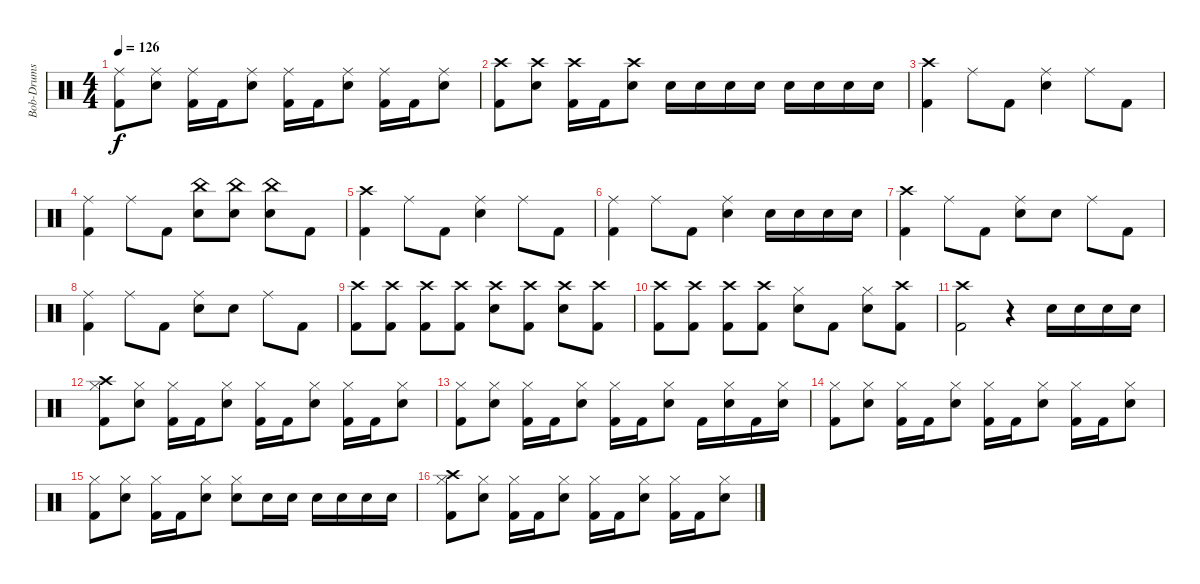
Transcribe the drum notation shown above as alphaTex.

\track ("Bob-Drums" "Bob-Drums") {instrument percussion}
\staff {score}
\articulation defaults
\ts (4 4)
\tempo 126
\clef neutral
\ks c
("Ride (middle)" "Kick (hit) 2").8{dy f} ("Ride (middle)" "Snare (hit) 2").8 ("Ride (middle)" "Kick (hit) 2").16 "Kick (hit) 2".16 ("Ride (middle)" "Snare (hit) 2").8 ("Ride (middle)" "Kick (hit) 2").16 "Kick (hit) 2".16 ("Ride (middle)" "Snare (hit) 2").8 ("Ride (middle)" "Kick (hit) 2").16 "Kick (hit) 2".16 ("Ride (middle)" "Snare (hit) 2").8 |
("Crash high (hit)" "Kick (hit) 2").8 ("Crash high (hit)" "Snare (hit) 2").8 ("Crash high (hit)" "Kick (hit) 2").16 "Kick (hit) 2".16 ("Crash high (hit)" "Snare (hit) 2").8 "Snare (hit) 2".16 "Snare (hit) 2".16 "Snare (hit) 2".16 "Snare (hit) 2".16 "Snare (hit) 2".16 "Snare (hit) 2".16 "Snare (hit) 2".16 "Snare (hit) 2".16 |
("Crash high (hit)" "Kick (hit) 2").4 "Ride (middle)".8 "Kick (hit) 2".8 ("Ride (middle)" "Snare (hit) 2").4 "Ride (middle)".8 "Kick (hit) 2".8 |
("Ride (middle)" "Kick (hit) 2").4 "Ride (middle)".8 "Kick (hit) 2".8 ("China (hit)" "Snare (hit) 2").8 ("China (hit)" "Snare (hit) 2").8 ("China (hit)" "Snare (hit) 2").8 "Kick (hit) 2".8 |
("Crash high (hit)" "Kick (hit) 2").4 "Ride (middle)".8 "Kick (hit) 2".8 ("Ride (middle)" "Snare (hit) 2").4 "Ride (middle)".8 "Kick (hit) 2".8 |
("Ride (middle)" "Kick (hit) 2").4 "Ride (middle)".8 "Kick (hit) 2".8 ("Ride (middle)" "Snare (hit) 2").4 "Snare (hit) 2".16 "Snare (hit) 2".16 "Snare (hit) 2".16 "Snare (hit) 2".16 |
("Crash high (hit)" "Kick (hit) 2").4 "Ride (middle)".8 "Kick (hit) 2".8 ("Ride (middle)" "Snare (hit) 2").8 "Snare (hit) 2".8 "Ride (middle)".8 "Kick (hit) 2".8 |
("Ride (middle)" "Kick (hit) 2").4 "Ride (middle)".8 "Kick (hit) 2".8 ("Ride (middle)" "Snare (hit) 2").8 "Snare (hit) 2".8 "Ride (middle)".8 "Kick (hit) 2".8 |
("Crash high (hit)" "Kick (hit) 2").8 ("Crash high (hit)" "Kick (hit) 2").8 ("Crash high (hit)" "Kick (hit) 2").8 ("Crash high (hit)" "Kick (hit) 2").8 ("Crash high (hit)" "Snare (hit) 2").8 ("Crash high (hit)" "Kick (hit) 2").8 ("Crash high (hit)" "Snare (hit) 2").8 ("Crash high (hit)" "Kick (hit) 2").8 |
("Crash high (hit)" "Kick (hit) 2").8 ("Crash high (hit)" "Kick (hit) 2").8 ("Crash high (hit)" "Kick (hit) 2").8 ("Crash high (hit)" "Kick (hit) 2").8 ("Hi-Hat (closed)" "Snare (hit) 2").8 "Kick (hit) 2".8 ("Hi-Hat (closed)" "Snare (hit) 2").8 ("Crash high (hit)" "Kick (hit) 2").8 |
("Crash high (hit)" "Kick (hit) 2").2 r.4 "Snare (hit) 2".16 "Snare (hit) 2".16 "Snare (hit) 2".16 "Snare (hit) 2".16 |
("Crash high (hit)" "Hi-Hat (closed)" "Kick (hit) 2").8 ("Hi-Hat (closed)" "Snare (hit) 2").8 ("Hi-Hat (closed)" "Kick (hit) 2").16 "Kick (hit) 2".16 ("Hi-Hat (closed)" "Snare (hit) 2").8 ("Hi-Hat (closed)" "Kick (hit) 2").16 "Kick (hit) 2".16 ("Hi-Hat (closed)" "Snare (hit) 2").8 ("Hi-Hat (closed)" "Kick (hit) 2").16 "Kick (hit) 2".16 ("Hi-Hat (closed)" "Snare (hit) 2").8 |
("Hi-Hat (closed)" "Kick (hit) 2").8 ("Hi-Hat (closed)" "Snare (hit) 2").8 ("Hi-Hat (closed)" "Kick (hit) 2").16 "Kick (hit) 2".16 ("Hi-Hat (closed)" "Snare (hit) 2").8 ("Hi-Hat (closed)" "Kick (hit) 2").16 "Kick (hit) 2".16 ("Hi-Hat (closed)" "Snare (hit) 2").8 "Kick (hit) 2".16 ("Hi-Hat (closed)" "Snare (hit) 2").16 "Kick (hit) 2".16 ("Hi-Hat (closed)" "Snare (hit) 2").16 |
("Hi-Hat (closed)" "Kick (hit) 2").8 ("Hi-Hat (closed)" "Snare (hit) 2").8 ("Hi-Hat (closed)" "Kick (hit) 2").16 "Kick (hit) 2".16 ("Hi-Hat (closed)" "Snare (hit) 2").8 ("Hi-Hat (closed)" "Kick (hit) 2").16 "Kick (hit) 2".16 ("Hi-Hat (closed)" "Snare (hit) 2").8 ("Hi-Hat (closed)" "Kick (hit) 2").16 "Kick (hit) 2".16 ("Hi-Hat (closed)" "Snare (hit) 2").8 |
("Hi-Hat (closed)" "Kick (hit) 2").8 ("Hi-Hat (closed)" "Snare (hit) 2").8 ("Hi-Hat (closed)" "Kick (hit) 2").16 "Kick (hit) 2".16 ("Hi-Hat (closed)" "Snare (hit) 2").8 ("Hi-Hat (closed)" "Snare (hit) 2").8 "Snare (hit) 2".16 "Snare (hit) 2".16 "Snare (hit) 2".16 "Snare (hit) 2".16 "Snare (hit) 2".16 "Snare (hit) 2".16 |
("Crash high (hit)" "Hi-Hat (closed)" "Kick (hit) 2").8 ("Hi-Hat (closed)" "Snare (hit) 2").8 ("Hi-Hat (closed)" "Kick (hit) 2").16 "Kick (hit) 2".16 ("Hi-Hat (closed)" "Snare (hit) 2").8 ("Hi-Hat (closed)" "Kick (hit) 2").16 "Kick (hit) 2".16 ("Hi-Hat (closed)" "Snare (hit) 2").8 ("Hi-Hat (closed)" "Kick (hit) 2").16 "Kick (hit) 2".16 ("Hi-Hat (closed)" "Snare (hit) 2").8
